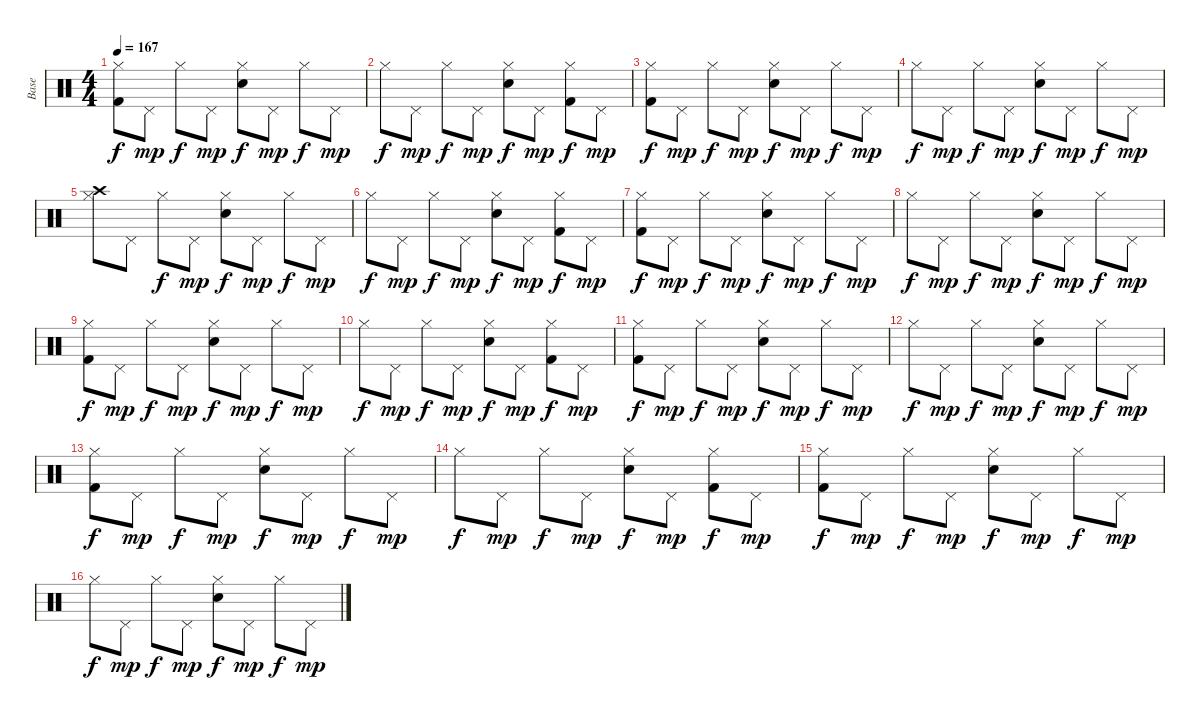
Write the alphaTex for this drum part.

\track ("Base" "Base") {instrument percussion}
\staff {score}
\articulation defaults
\ts (4 4)
\tempo 167
\clef neutral
\ks c
("Hi-Hat (closed)" "Kick (hit) 2").8{dy f} "Pedal Hi-Hat (hit)".8{dy mp} "Hi-Hat (closed)".8{dy f} "Pedal Hi-Hat (hit)".8{dy mp} ("Electric Snare (hit)" "Hi-Hat (closed)").8{dy f} "Pedal Hi-Hat (hit)".8{dy mp} "Hi-Hat (closed)".8{dy f} "Pedal Hi-Hat (hit)".8{dy mp} |
"Hi-Hat (closed)".8{dy f} "Pedal Hi-Hat (hit)".8{dy mp} "Hi-Hat (closed)".8{dy f} "Pedal Hi-Hat (hit)".8{dy mp} ("Electric Snare (hit)" "Hi-Hat (closed)").8{dy f} "Pedal Hi-Hat (hit)".8{dy mp} ("Hi-Hat (closed)" "Kick (hit) 2").8{dy f} "Pedal Hi-Hat (hit)".8{dy mp} |
("Hi-Hat (closed)" "Kick (hit) 2").8{dy f} "Pedal Hi-Hat (hit)".8{dy mp} "Hi-Hat (closed)".8{dy f} "Pedal Hi-Hat (hit)".8{dy mp} ("Electric Snare (hit)" "Hi-Hat (closed)").8{dy f} "Pedal Hi-Hat (hit)".8{dy mp} "Hi-Hat (closed)".8{dy f} "Pedal Hi-Hat (hit)".8{dy mp} |
"Hi-Hat (closed)".8{dy f} "Pedal Hi-Hat (hit)".8{dy mp} "Hi-Hat (closed)".8{dy f} "Pedal Hi-Hat (hit)".8{dy mp} ("Electric Snare (hit)" "Hi-Hat (closed)").8{dy f} "Pedal Hi-Hat (hit)".8{dy mp} "Hi-Hat (closed)".8{dy f} "Pedal Hi-Hat (hit)".8{dy mp} |
("Hi-Hat (closed)" "Crash high (hit)").8 "Pedal Hi-Hat (hit)".8 "Hi-Hat (closed)".8{dy f} "Pedal Hi-Hat (hit)".8{dy mp} ("Electric Snare (hit)" "Hi-Hat (closed)").8{dy f} "Pedal Hi-Hat (hit)".8{dy mp} "Hi-Hat (closed)".8{dy f} "Pedal Hi-Hat (hit)".8{dy mp} |
"Hi-Hat (closed)".8{dy f} "Pedal Hi-Hat (hit)".8{dy mp} "Hi-Hat (closed)".8{dy f} "Pedal Hi-Hat (hit)".8{dy mp} ("Electric Snare (hit)" "Hi-Hat (closed)").8{dy f} "Pedal Hi-Hat (hit)".8{dy mp} ("Hi-Hat (closed)" "Kick (hit) 2").8{dy f} "Pedal Hi-Hat (hit)".8{dy mp} |
("Hi-Hat (closed)" "Kick (hit) 2").8{dy f} "Pedal Hi-Hat (hit)".8{dy mp} "Hi-Hat (closed)".8{dy f} "Pedal Hi-Hat (hit)".8{dy mp} ("Electric Snare (hit)" "Hi-Hat (closed)").8{dy f} "Pedal Hi-Hat (hit)".8{dy mp} "Hi-Hat (closed)".8{dy f} "Pedal Hi-Hat (hit)".8{dy mp} |
"Hi-Hat (closed)".8{dy f} "Pedal Hi-Hat (hit)".8{dy mp} "Hi-Hat (closed)".8{dy f} "Pedal Hi-Hat (hit)".8{dy mp} ("Electric Snare (hit)" "Hi-Hat (closed)").8{dy f} "Pedal Hi-Hat (hit)".8{dy mp} "Hi-Hat (closed)".8{dy f} "Pedal Hi-Hat (hit)".8{dy mp} |
("Hi-Hat (closed)" "Kick (hit) 2").8{dy f} "Pedal Hi-Hat (hit)".8{dy mp} "Hi-Hat (closed)".8{dy f} "Pedal Hi-Hat (hit)".8{dy mp} ("Electric Snare (hit)" "Hi-Hat (closed)").8{dy f} "Pedal Hi-Hat (hit)".8{dy mp} "Hi-Hat (closed)".8{dy f} "Pedal Hi-Hat (hit)".8{dy mp} |
"Hi-Hat (closed)".8{dy f} "Pedal Hi-Hat (hit)".8{dy mp} "Hi-Hat (closed)".8{dy f} "Pedal Hi-Hat (hit)".8{dy mp} ("Electric Snare (hit)" "Hi-Hat (closed)").8{dy f} "Pedal Hi-Hat (hit)".8{dy mp} ("Hi-Hat (closed)" "Kick (hit) 2").8{dy f} "Pedal Hi-Hat (hit)".8{dy mp} |
("Hi-Hat (closed)" "Kick (hit) 2").8{dy f} "Pedal Hi-Hat (hit)".8{dy mp} "Hi-Hat (closed)".8{dy f} "Pedal Hi-Hat (hit)".8{dy mp} ("Electric Snare (hit)" "Hi-Hat (closed)").8{dy f} "Pedal Hi-Hat (hit)".8{dy mp} "Hi-Hat (closed)".8{dy f} "Pedal Hi-Hat (hit)".8{dy mp} |
"Hi-Hat (closed)".8{dy f} "Pedal Hi-Hat (hit)".8{dy mp} "Hi-Hat (closed)".8{dy f} "Pedal Hi-Hat (hit)".8{dy mp} ("Electric Snare (hit)" "Hi-Hat (closed)").8{dy f} "Pedal Hi-Hat (hit)".8{dy mp} "Hi-Hat (closed)".8{dy f} "Pedal Hi-Hat (hit)".8{dy mp} |
("Hi-Hat (closed)" "Kick (hit) 2").8{dy f} "Pedal Hi-Hat (hit)".8{dy mp} "Hi-Hat (closed)".8{dy f} "Pedal Hi-Hat (hit)".8{dy mp} ("Electric Snare (hit)" "Hi-Hat (closed)").8{dy f} "Pedal Hi-Hat (hit)".8{dy mp} "Hi-Hat (closed)".8{dy f} "Pedal Hi-Hat (hit)".8{dy mp} |
"Hi-Hat (closed)".8{dy f} "Pedal Hi-Hat (hit)".8{dy mp} "Hi-Hat (closed)".8{dy f} "Pedal Hi-Hat (hit)".8{dy mp} ("Electric Snare (hit)" "Hi-Hat (closed)").8{dy f} "Pedal Hi-Hat (hit)".8{dy mp} ("Hi-Hat (closed)" "Kick (hit) 2").8{dy f} "Pedal Hi-Hat (hit)".8{dy mp} |
("Hi-Hat (closed)" "Kick (hit) 2").8{dy f} "Pedal Hi-Hat (hit)".8{dy mp} "Hi-Hat (closed)".8{dy f} "Pedal Hi-Hat (hit)".8{dy mp} ("Electric Snare (hit)" "Hi-Hat (closed)").8{dy f} "Pedal Hi-Hat (hit)".8{dy mp} "Hi-Hat (closed)".8{dy f} "Pedal Hi-Hat (hit)".8{dy mp} |
"Hi-Hat (closed)".8{dy f} "Pedal Hi-Hat (hit)".8{dy mp} "Hi-Hat (closed)".8{dy f} "Pedal Hi-Hat (hit)".8{dy mp} ("Electric Snare (hit)" "Hi-Hat (closed)").8{dy f} "Pedal Hi-Hat (hit)".8{dy mp} "Hi-Hat (closed)".8{dy f} "Pedal Hi-Hat (hit)".8{dy mp}
